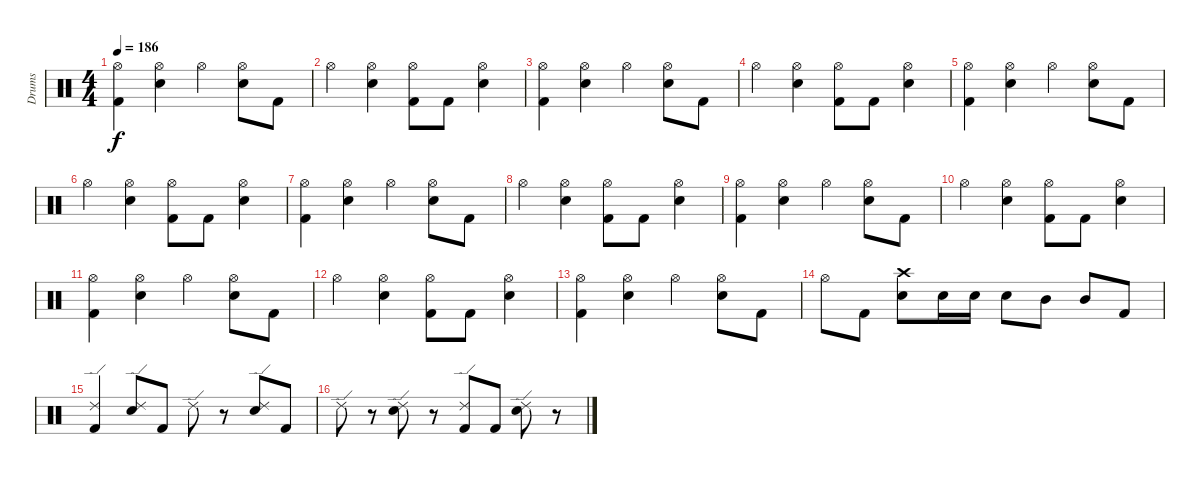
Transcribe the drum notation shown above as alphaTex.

\track ("Drums" "Drums") {instrument percussion}
\staff {score}
\articulation defaults
\ts (4 4)
\tempo 186
\clef neutral
\ks c
("Hi-Hat (open)" "Kick (hit) 2").4{dy f} ("Hi-Hat (open)" "Snare (hit) 2").4 "Hi-Hat (open)".4 ("Hi-Hat (open)" "Snare (hit) 2").8 "Kick (hit) 2".8 |
"Hi-Hat (open)".4 ("Hi-Hat (open)" "Snare (hit) 2").4 ("Hi-Hat (open)" "Kick (hit) 2").8 "Kick (hit) 2".8 ("Hi-Hat (open)" "Snare (hit) 2").4 |
("Hi-Hat (open)" "Kick (hit) 2").4 ("Hi-Hat (open)" "Snare (hit) 2").4 "Hi-Hat (open)".4 ("Hi-Hat (open)" "Snare (hit) 2").8 "Kick (hit) 2".8 |
"Hi-Hat (open)".4 ("Hi-Hat (open)" "Snare (hit) 2").4 ("Hi-Hat (open)" "Kick (hit) 2").8 "Kick (hit) 2".8 ("Hi-Hat (open)" "Snare (hit) 2").4 |
("Hi-Hat (open)" "Kick (hit) 2").4 ("Hi-Hat (open)" "Snare (hit) 2").4 "Hi-Hat (open)".4 ("Hi-Hat (open)" "Snare (hit) 2").8 "Kick (hit) 2".8 |
"Hi-Hat (open)".4 ("Hi-Hat (open)" "Snare (hit) 2").4 ("Hi-Hat (open)" "Kick (hit) 2").8 "Kick (hit) 2".8 ("Hi-Hat (open)" "Snare (hit) 2").4 |
("Hi-Hat (open)" "Kick (hit) 2").4 ("Hi-Hat (open)" "Snare (hit) 2").4 "Hi-Hat (open)".4 ("Hi-Hat (open)" "Snare (hit) 2").8 "Kick (hit) 2".8 |
"Hi-Hat (open)".4 ("Hi-Hat (open)" "Snare (hit) 2").4 ("Hi-Hat (open)" "Kick (hit) 2").8 "Kick (hit) 2".8 ("Hi-Hat (open)" "Snare (hit) 2").4 |
("Hi-Hat (open)" "Kick (hit) 2").4 ("Hi-Hat (open)" "Snare (hit) 2").4 "Hi-Hat (open)".4 ("Hi-Hat (open)" "Snare (hit) 2").8 "Kick (hit) 2".8 |
"Hi-Hat (open)".4 ("Hi-Hat (open)" "Snare (hit) 2").4 ("Hi-Hat (open)" "Kick (hit) 2").8 "Kick (hit) 2".8 ("Hi-Hat (open)" "Snare (hit) 2").4 |
("Hi-Hat (open)" "Kick (hit) 2").4 ("Hi-Hat (open)" "Snare (hit) 2").4 "Hi-Hat (open)".4 ("Hi-Hat (open)" "Snare (hit) 2").8 "Kick (hit) 2".8 |
"Hi-Hat (open)".4 ("Hi-Hat (open)" "Snare (hit) 2").4 ("Hi-Hat (open)" "Kick (hit) 2").8 "Kick (hit) 2".8 ("Hi-Hat (open)" "Snare (hit) 2").4 |
("Hi-Hat (open)" "Kick (hit) 2").4 ("Hi-Hat (open)" "Snare (hit) 2").4 "Hi-Hat (open)".4 ("Hi-Hat (open)" "Snare (hit) 2").8 "Kick (hit) 2".8 |
"Hi-Hat (open)".8 "Kick (hit) 2".8 ("Crash high (hit)" "Snare (hit) 2").8 "Snare (hit) 2".16 "Snare (hit) 2".16 "Snare (hit) 2".8 "Mid Tom (hit)".8 "Mid Tom (hit)".8 "Kick (hit) 2".8 |
("Ride (edge) 2" "Kick (hit) 2").4 ("Ride (edge) 2" "Snare (hit) 2").8 "Kick (hit) 2".8 "Ride (edge) 2".8 r.8 ("Ride (edge) 2" "Snare (hit) 2").8 "Kick (hit) 2".8 |
"Ride (edge) 2".8 r.8 ("Ride (edge) 2" "Snare (hit) 2").8 r.8 ("Ride (edge) 2" "Kick (hit) 2").8 "Kick (hit) 2".8 ("Ride (edge) 2" "Snare (hit) 2").8 r.8
